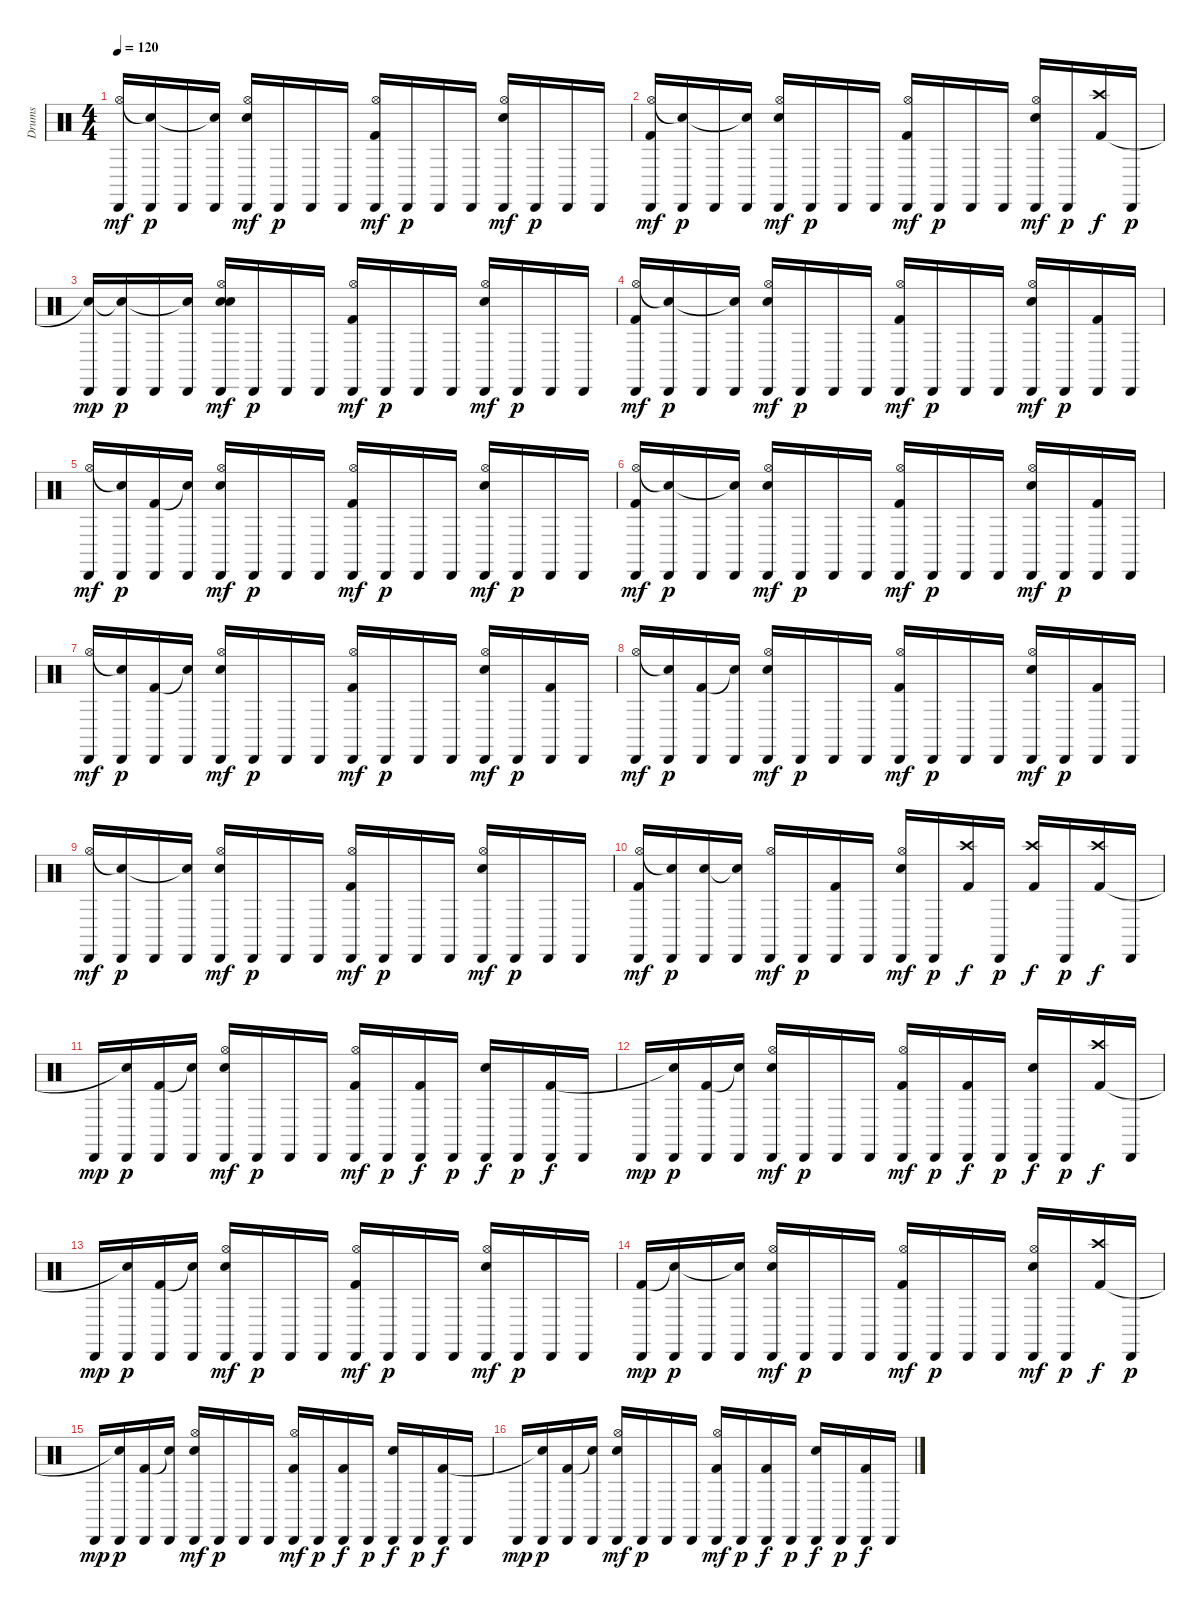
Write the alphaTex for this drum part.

\track ("Drums" "Drums") {instrument percussion}
\staff {score}
\articulation defaults
\ts (4 4)
\tempo 120
\clef neutral
\ks c
("Cabasa (hit)" "Hi-Hat (open)").16{dy mf} ("Cabasa (hit)" "Snare (hit)"{t}).16{dy p} "Cabasa (hit)".16 ("Cabasa (hit)" "Snare (hit)"{t}).16 ("Cabasa (hit)" "Hi-Hat (open)" "Snare (hit) 2").16{dy mf} "Cabasa (hit)".16{dy p} "Cabasa (hit)".16 "Cabasa (hit)".16 ("Cabasa (hit)" "Hi-Hat (open)" "Kick (hit) 2").16{dy mf} "Cabasa (hit)".16{dy p} "Cabasa (hit)".16 "Cabasa (hit)".16 ("Cabasa (hit)" "Hi-Hat (open)" "Snare (hit) 2").16{dy mf} "Cabasa (hit)".16{dy p} "Cabasa (hit)".16 "Cabasa (hit)".16 |
("Cabasa (hit)" "Hi-Hat (open)" "Kick (hit) 2").16{dy mf} ("Cabasa (hit)" "Snare (hit)"{t}).16{dy p} "Cabasa (hit)".16 ("Cabasa (hit)" "Snare (hit)"{t}).16 ("Cabasa (hit)" "Hi-Hat (open)" "Snare (hit) 2").16{dy mf} "Cabasa (hit)".16{dy p} "Cabasa (hit)".16 "Cabasa (hit)".16 ("Cabasa (hit)" "Hi-Hat (open)" "Kick (hit) 2").16{dy mf} "Cabasa (hit)".16{dy p} "Cabasa (hit)".16 "Cabasa (hit)".16 ("Cabasa (hit)" "Hi-Hat (open)" "Snare (hit) 2").16{dy mf} "Cabasa (hit)".16{dy p} ("Crash high (hit)" "Kick (hit) 2").16{dy f} "Cabasa (hit)".16{dy p} |
("Cabasa (hit)" "Snare (hit)"{t}).16{dy mp} ("Cabasa (hit)" "Snare (hit)"{t}).16{dy p} "Cabasa (hit)".16 ("Cabasa (hit)" "Snare (hit)"{t}).16 ("Cabasa (hit)" "Hi-Hat (open)" "Snare (hit) 2" "Snare (hit) 2").16{dy mf} "Cabasa (hit)".16{dy p} "Cabasa (hit)".16 "Cabasa (hit)".16 ("Cabasa (hit)" "Hi-Hat (open)" "Kick (hit) 2").16{dy mf} "Cabasa (hit)".16{dy p} "Cabasa (hit)".16 "Cabasa (hit)".16 ("Cabasa (hit)" "Hi-Hat (open)" "Snare (hit) 2").16{dy mf} "Cabasa (hit)".16{dy p} "Cabasa (hit)".16 "Cabasa (hit)".16 |
("Cabasa (hit)" "Hi-Hat (open)" "Kick (hit) 2").16{dy mf} ("Cabasa (hit)" "Snare (hit)"{t}).16{dy p} "Cabasa (hit)".16 ("Cabasa (hit)" "Snare (hit)"{t}).16 ("Cabasa (hit)" "Hi-Hat (open)" "Snare (hit) 2").16{dy mf} "Cabasa (hit)".16{dy p} "Cabasa (hit)".16 "Cabasa (hit)".16 ("Cabasa (hit)" "Hi-Hat (open)" "Kick (hit) 2").16{dy mf} "Cabasa (hit)".16{dy p} "Cabasa (hit)".16 "Cabasa (hit)".16 ("Cabasa (hit)" "Hi-Hat (open)" "Snare (hit) 2").16{dy mf} "Cabasa (hit)".16{dy p} ("Cabasa (hit)" "Kick (hit) 2").16 "Cabasa (hit)".16 |
("Cabasa (hit)" "Hi-Hat (open)").16{dy mf} ("Cabasa (hit)" "Snare (hit)"{t}).16{dy p} ("Cabasa (hit)" "Kick (hit) 2").16 ("Cabasa (hit)" "Snare (hit)"{t}).16 ("Cabasa (hit)" "Hi-Hat (open)" "Snare (hit) 2").16{dy mf} "Cabasa (hit)".16{dy p} "Cabasa (hit)".16 "Cabasa (hit)".16 ("Cabasa (hit)" "Hi-Hat (open)" "Kick (hit) 2").16{dy mf} "Cabasa (hit)".16{dy p} "Cabasa (hit)".16 "Cabasa (hit)".16 ("Cabasa (hit)" "Hi-Hat (open)" "Snare (hit) 2").16{dy mf} "Cabasa (hit)".16{dy p} "Cabasa (hit)".16 "Cabasa (hit)".16 |
("Cabasa (hit)" "Hi-Hat (open)" "Kick (hit) 2").16{dy mf} ("Cabasa (hit)" "Snare (hit)"{t}).16{dy p} "Cabasa (hit)".16 ("Cabasa (hit)" "Snare (hit)"{t}).16 ("Cabasa (hit)" "Hi-Hat (open)" "Snare (hit) 2").16{dy mf} "Cabasa (hit)".16{dy p} "Cabasa (hit)".16 "Cabasa (hit)".16 ("Cabasa (hit)" "Hi-Hat (open)" "Kick (hit) 2").16{dy mf} "Cabasa (hit)".16{dy p} "Cabasa (hit)".16 "Cabasa (hit)".16 ("Cabasa (hit)" "Hi-Hat (open)" "Snare (hit) 2").16{dy mf} "Cabasa (hit)".16{dy p} ("Cabasa (hit)" "Kick (hit) 2").16 "Cabasa (hit)".16 |
("Cabasa (hit)" "Hi-Hat (open)").16{dy mf} ("Cabasa (hit)" "Snare (hit)"{t}).16{dy p} ("Cabasa (hit)" "Kick (hit) 2").16 ("Cabasa (hit)" "Snare (hit)"{t}).16 ("Cabasa (hit)" "Hi-Hat (open)" "Snare (hit) 2").16{dy mf} "Cabasa (hit)".16{dy p} "Cabasa (hit)".16 "Cabasa (hit)".16 ("Cabasa (hit)" "Hi-Hat (open)" "Kick (hit) 2").16{dy mf} "Cabasa (hit)".16{dy p} "Cabasa (hit)".16 "Cabasa (hit)".16 ("Cabasa (hit)" "Hi-Hat (open)" "Snare (hit) 2").16{dy mf} "Cabasa (hit)".16{dy p} ("Cabasa (hit)" "Kick (hit) 2").16 "Cabasa (hit)".16 |
("Cabasa (hit)" "Hi-Hat (open)").16{dy mf} ("Cabasa (hit)" "Snare (hit)"{t}).16{dy p} ("Cabasa (hit)" "Kick (hit) 2").16 ("Cabasa (hit)" "Snare (hit)"{t}).16 ("Cabasa (hit)" "Hi-Hat (open)" "Snare (hit) 2").16{dy mf} "Cabasa (hit)".16{dy p} "Cabasa (hit)".16 "Cabasa (hit)".16 ("Cabasa (hit)" "Hi-Hat (open)" "Kick (hit) 2").16{dy mf} "Cabasa (hit)".16{dy p} "Cabasa (hit)".16 "Cabasa (hit)".16 ("Cabasa (hit)" "Hi-Hat (open)" "Snare (hit) 2").16{dy mf} "Cabasa (hit)".16{dy p} ("Cabasa (hit)" "Kick (hit) 2").16 "Cabasa (hit)".16 |
("Cabasa (hit)" "Hi-Hat (open)").16{dy mf} ("Cabasa (hit)" "Snare (hit)"{t}).16{dy p} "Cabasa (hit)".16 ("Cabasa (hit)" "Snare (hit)"{t}).16 ("Cabasa (hit)" "Hi-Hat (open)" "Snare (hit) 2").16{dy mf} "Cabasa (hit)".16{dy p} "Cabasa (hit)".16 "Cabasa (hit)".16 ("Cabasa (hit)" "Hi-Hat (open)" "Kick (hit) 2").16{dy mf} "Cabasa (hit)".16{dy p} "Cabasa (hit)".16 "Cabasa (hit)".16 ("Cabasa (hit)" "Hi-Hat (open)" "Snare (hit) 2").16{dy mf} "Cabasa (hit)".16{dy p} "Cabasa (hit)".16 "Cabasa (hit)".16 |
("Cabasa (hit)" "Hi-Hat (open)" "Kick (hit) 2").16{dy mf} ("Cabasa (hit)" "Snare (hit)"{t}).16{dy p} ("Cabasa (hit)" "Snare (hit) 2").16 ("Cabasa (hit)" "Snare (hit)"{t}).16 ("Cabasa (hit)" "Hi-Hat (open)").16{dy mf} "Cabasa (hit)".16{dy p} ("Cabasa (hit)" "Kick (hit) 2").16 "Cabasa (hit)".16 ("Cabasa (hit)" "Hi-Hat (open)" "Snare (hit) 2").16{dy mf} "Cabasa (hit)".16{dy p} ("Crash high (hit)" "Kick (hit) 2").16{dy f} "Cabasa (hit)".16{dy p} ("Crash high (hit)" "Kick (hit) 2").16{dy f} "Cabasa (hit)".16{dy p} ("Crash high (hit)" "Kick (hit) 2").16{dy f} "Cabasa (hit)".16 |
"Cabasa (hit)".16{dy mp} ("Cabasa (hit)" "Snare (hit)"{t}).16{dy p} ("Cabasa (hit)" "Kick (hit) 2").16 ("Cabasa (hit)" "Snare (hit)"{t}).16 ("Cabasa (hit)" "Hi-Hat (open)" "Snare (hit) 2").16{dy mf} "Cabasa (hit)".16{dy p} "Cabasa (hit)".16 "Cabasa (hit)".16 ("Cabasa (hit)" "Hi-Hat (open)" "Kick (hit) 2").16{dy mf} "Cabasa (hit)".16{dy p} ("Cabasa (hit)" "Kick (hit) 2").16{dy f} "Cabasa (hit)".16{dy p} ("Cabasa (hit)" "Snare (hit) 2").16{dy f} "Cabasa (hit)".16{dy p} ("Cabasa (hit)" "Kick (hit) 2").16{dy f} "Cabasa (hit)".16 |
"Cabasa (hit)".16{dy mp} ("Cabasa (hit)" "Snare (hit)"{t}).16{dy p} ("Cabasa (hit)" "Kick (hit) 2").16 ("Cabasa (hit)" "Snare (hit)"{t}).16 ("Cabasa (hit)" "Hi-Hat (open)" "Snare (hit) 2").16{dy mf} "Cabasa (hit)".16{dy p} "Cabasa (hit)".16 "Cabasa (hit)".16 ("Cabasa (hit)" "Hi-Hat (open)" "Kick (hit) 2").16{dy mf} "Cabasa (hit)".16{dy p} ("Cabasa (hit)" "Kick (hit) 2").16{dy f} "Cabasa (hit)".16{dy p} ("Cabasa (hit)" "Snare (hit) 2").16{dy f} "Cabasa (hit)".16{dy p} ("Crash high (hit)" "Kick (hit) 2").16{dy f} "Cabasa (hit)".16 |
"Cabasa (hit)".16{dy mp} ("Cabasa (hit)" "Snare (hit)"{t}).16{dy p} ("Cabasa (hit)" "Kick (hit) 2").16 ("Cabasa (hit)" "Snare (hit)"{t}).16 ("Cabasa (hit)" "Hi-Hat (open)" "Snare (hit) 2").16{dy mf} "Cabasa (hit)".16{dy p} "Cabasa (hit)".16 "Cabasa (hit)".16 ("Cabasa (hit)" "Hi-Hat (open)" "Kick (hit) 2").16{dy mf} "Cabasa (hit)".16{dy p} "Cabasa (hit)".16 "Cabasa (hit)".16 ("Cabasa (hit)" "Hi-Hat (open)" "Snare (hit) 2").16{dy mf} "Cabasa (hit)".16{dy p} "Cabasa (hit)".16 "Cabasa (hit)".16 |
("Cabasa (hit)" "Kick (hit) 2").16{dy mp} ("Cabasa (hit)" "Snare (hit)"{t}).16{dy p} "Cabasa (hit)".16 ("Cabasa (hit)" "Snare (hit)"{t}).16 ("Cabasa (hit)" "Hi-Hat (open)" "Snare (hit) 2").16{dy mf} "Cabasa (hit)".16{dy p} "Cabasa (hit)".16 "Cabasa (hit)".16 ("Cabasa (hit)" "Hi-Hat (open)" "Kick (hit) 2").16{dy mf} "Cabasa (hit)".16{dy p} "Cabasa (hit)".16 "Cabasa (hit)".16 ("Cabasa (hit)" "Hi-Hat (open)" "Snare (hit) 2").16{dy mf} "Cabasa (hit)".16{dy p} ("Crash high (hit)" "Kick (hit) 2").16{dy f} "Cabasa (hit)".16{dy p} |
"Cabasa (hit)".16{dy mp} ("Cabasa (hit)" "Snare (hit)"{t}).16{dy p} ("Cabasa (hit)" "Kick (hit) 2").16 ("Cabasa (hit)" "Snare (hit)"{t}).16 ("Cabasa (hit)" "Hi-Hat (open)" "Snare (hit) 2").16{dy mf} "Cabasa (hit)".16{dy p} "Cabasa (hit)".16 "Cabasa (hit)".16 ("Cabasa (hit)" "Hi-Hat (open)" "Kick (hit) 2").16{dy mf} "Cabasa (hit)".16{dy p} ("Cabasa (hit)" "Kick (hit) 2").16{dy f} "Cabasa (hit)".16{dy p} ("Cabasa (hit)" "Snare (hit) 2").16{dy f} "Cabasa (hit)".16{dy p} ("Cabasa (hit)" "Kick (hit) 2").16{dy f} "Cabasa (hit)".16 |
"Cabasa (hit)".16{dy mp} ("Cabasa (hit)" "Snare (hit)"{t}).16{dy p} ("Cabasa (hit)" "Kick (hit) 2").16 ("Cabasa (hit)" "Snare (hit)"{t}).16 ("Cabasa (hit)" "Hi-Hat (open)" "Snare (hit) 2").16{dy mf} "Cabasa (hit)".16{dy p} "Cabasa (hit)".16 "Cabasa (hit)".16 ("Cabasa (hit)" "Hi-Hat (open)" "Kick (hit) 2").16{dy mf} "Cabasa (hit)".16{dy p} ("Cabasa (hit)" "Kick (hit) 2").16{dy f} "Cabasa (hit)".16{dy p} ("Cabasa (hit)" "Snare (hit) 2").16{dy f} "Cabasa (hit)".16{dy p} ("Cabasa (hit)" "Kick (hit) 2").16{dy f} "Cabasa (hit)".16
